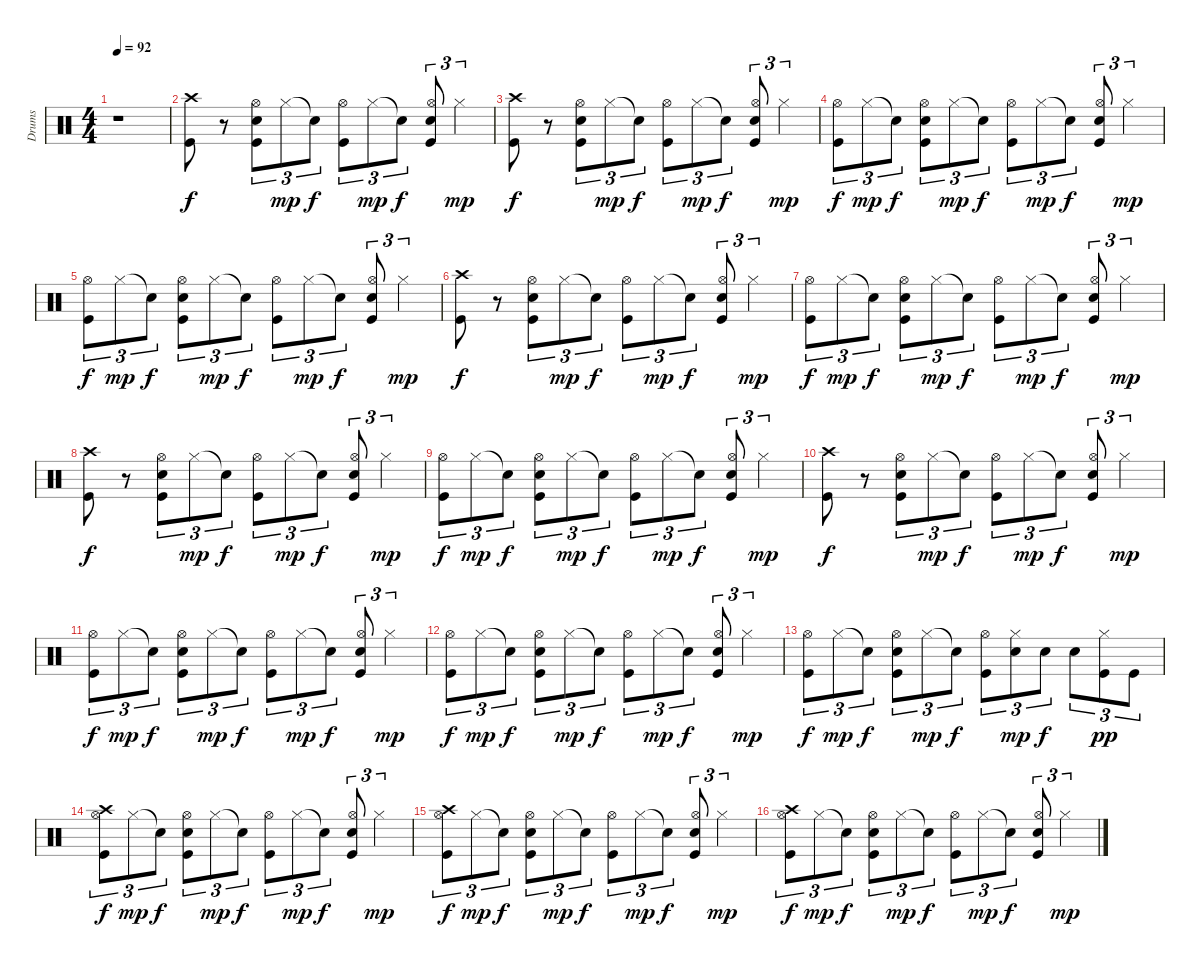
\track ("Drums" "Drums") {instrument percussion}
\staff {score}
\articulation defaults
\ts (4 4)
\tempo 92
\clef neutral
\ks c
r.1{dy f} |
("Crash high (hit)" "Kick (hit)").8 r.8 ("Kick (hit)" "Hi-Hat (open)" "Snare (hit) 2").8{tu (3 2)} "Hi-Hat (closed)".8{tu (3 2) dy mp} "Snare (hit)"{t}.8{tu (3 2) dy f} ("Hi-Hat (open)" "Kick (hit)").8{tu (3 2)} "Hi-Hat (closed)".8{tu (3 2) dy mp} "Snare (hit)"{t}.8{tu (3 2) dy f} ("Kick (hit)" "Hi-Hat (open)" "Snare (hit) 2").8{tu (3 2)} "Hi-Hat (closed)".4{tu (3 2) dy mp} |
("Crash high (hit)" "Kick (hit)").8{dy f} r.8 ("Kick (hit)" "Hi-Hat (open)" "Snare (hit) 2").8{tu (3 2)} "Hi-Hat (closed)".8{tu (3 2) dy mp} "Snare (hit)"{t}.8{tu (3 2) dy f} ("Hi-Hat (open)" "Kick (hit)").8{tu (3 2)} "Hi-Hat (closed)".8{tu (3 2) dy mp} "Snare (hit)"{t}.8{tu (3 2) dy f} ("Kick (hit)" "Hi-Hat (open)" "Snare (hit) 2").8{tu (3 2)} "Hi-Hat (closed)".4{tu (3 2) dy mp} |
("Hi-Hat (open)" "Kick (hit)").8{tu (3 2) dy f} "Hi-Hat (closed)".8{tu (3 2) dy mp} "Snare (hit)"{t}.8{tu (3 2) dy f} ("Hi-Hat (open)" "Snare (hit) 2" "Kick (hit)").8{tu (3 2)} "Hi-Hat (closed)".8{tu (3 2) dy mp} "Snare (hit)"{t}.8{tu (3 2) dy f} ("Hi-Hat (open)" "Kick (hit)").8{tu (3 2)} "Hi-Hat (closed)".8{tu (3 2) dy mp} "Snare (hit)"{t}.8{tu (3 2) dy f} ("Kick (hit)" "Hi-Hat (open)" "Snare (hit) 2").8{tu (3 2)} "Hi-Hat (closed)".4{tu (3 2) dy mp} |
("Hi-Hat (open)" "Kick (hit)").8{tu (3 2) dy f} "Hi-Hat (closed)".8{tu (3 2) dy mp} "Snare (hit)"{t}.8{tu (3 2) dy f} ("Hi-Hat (open)" "Kick (hit)" "Snare (hit) 2").8{tu (3 2)} "Hi-Hat (closed)".8{tu (3 2) dy mp} "Snare (hit)"{t}.8{tu (3 2) dy f} ("Kick (hit)" "Hi-Hat (open)").8{tu (3 2)} "Hi-Hat (closed)".8{tu (3 2) dy mp} "Snare (hit)"{t}.8{tu (3 2) dy f} ("Kick (hit)" "Snare (hit) 2" "Hi-Hat (open)").8{tu (3 2)} "Hi-Hat (closed)".4{tu (3 2) dy mp} |
("Crash high (hit)" "Kick (hit)").8{dy f} r.8 ("Kick (hit)" "Hi-Hat (open)" "Snare (hit) 2").8{tu (3 2)} "Hi-Hat (closed)".8{tu (3 2) dy mp} "Snare (hit)"{t}.8{tu (3 2) dy f} ("Hi-Hat (open)" "Kick (hit)").8{tu (3 2)} "Hi-Hat (closed)".8{tu (3 2) dy mp} "Snare (hit)"{t}.8{tu (3 2) dy f} ("Kick (hit)" "Hi-Hat (open)" "Snare (hit) 2").8{tu (3 2)} "Hi-Hat (closed)".4{tu (3 2) dy mp} |
("Hi-Hat (open)" "Kick (hit)").8{tu (3 2) dy f} "Hi-Hat (closed)".8{tu (3 2) dy mp} "Snare (hit)"{t}.8{tu (3 2) dy f} ("Hi-Hat (open)" "Kick (hit)" "Snare (hit) 2").8{tu (3 2)} "Hi-Hat (closed)".8{tu (3 2) dy mp} "Snare (hit)"{t}.8{tu (3 2) dy f} ("Kick (hit)" "Hi-Hat (open)").8{tu (3 2)} "Hi-Hat (closed)".8{tu (3 2) dy mp} "Snare (hit)"{t}.8{tu (3 2) dy f} ("Kick (hit)" "Snare (hit) 2" "Hi-Hat (open)").8{tu (3 2)} "Hi-Hat (closed)".4{tu (3 2) dy mp} |
("Crash high (hit)" "Kick (hit)").8{dy f} r.8 ("Kick (hit)" "Hi-Hat (open)" "Snare (hit) 2").8{tu (3 2)} "Hi-Hat (closed)".8{tu (3 2) dy mp} "Snare (hit)"{t}.8{tu (3 2) dy f} ("Hi-Hat (open)" "Kick (hit)").8{tu (3 2)} "Hi-Hat (closed)".8{tu (3 2) dy mp} "Snare (hit)"{t}.8{tu (3 2) dy f} ("Kick (hit)" "Hi-Hat (open)" "Snare (hit) 2").8{tu (3 2)} "Hi-Hat (closed)".4{tu (3 2) dy mp} |
("Hi-Hat (open)" "Kick (hit)").8{tu (3 2) dy f} "Hi-Hat (closed)".8{tu (3 2) dy mp} "Snare (hit)"{t}.8{tu (3 2) dy f} ("Hi-Hat (open)" "Kick (hit)" "Snare (hit) 2").8{tu (3 2)} "Hi-Hat (closed)".8{tu (3 2) dy mp} "Snare (hit)"{t}.8{tu (3 2) dy f} ("Kick (hit)" "Hi-Hat (open)").8{tu (3 2)} "Hi-Hat (closed)".8{tu (3 2) dy mp} "Snare (hit)"{t}.8{tu (3 2) dy f} ("Kick (hit)" "Snare (hit) 2" "Hi-Hat (open)").8{tu (3 2)} "Hi-Hat (closed)".4{tu (3 2) dy mp} |
("Crash high (hit)" "Kick (hit)").8{dy f} r.8 ("Kick (hit)" "Hi-Hat (open)" "Snare (hit) 2").8{tu (3 2)} "Hi-Hat (closed)".8{tu (3 2) dy mp} "Snare (hit)"{t}.8{tu (3 2) dy f} ("Hi-Hat (open)" "Kick (hit)").8{tu (3 2)} "Hi-Hat (closed)".8{tu (3 2) dy mp} "Snare (hit)"{t}.8{tu (3 2) dy f} ("Kick (hit)" "Hi-Hat (open)" "Snare (hit) 2").8{tu (3 2)} "Hi-Hat (closed)".4{tu (3 2) dy mp} |
("Hi-Hat (open)" "Kick (hit)").8{tu (3 2) dy f} "Hi-Hat (closed)".8{tu (3 2) dy mp} "Snare (hit)"{t}.8{tu (3 2) dy f} ("Hi-Hat (open)" "Kick (hit)" "Snare (hit) 2").8{tu (3 2)} "Hi-Hat (closed)".8{tu (3 2) dy mp} "Snare (hit)"{t}.8{tu (3 2) dy f} ("Kick (hit)" "Hi-Hat (open)").8{tu (3 2)} "Hi-Hat (closed)".8{tu (3 2) dy mp} "Snare (hit)"{t}.8{tu (3 2) dy f} ("Kick (hit)" "Snare (hit) 2" "Hi-Hat (open)").8{tu (3 2)} "Hi-Hat (closed)".4{tu (3 2) dy mp} |
("Kick (hit)" "Hi-Hat (open)").8{tu (3 2) dy f} "Hi-Hat (closed)".8{tu (3 2) dy mp} "Snare (hit)"{t}.8{tu (3 2) dy f} ("Kick (hit)" "Hi-Hat (open)" "Snare (hit) 2").8{tu (3 2)} "Hi-Hat (closed)".8{tu (3 2) dy mp} "Snare (hit)"{t}.8{tu (3 2) dy f} ("Hi-Hat (open)" "Kick (hit)").8{tu (3 2)} "Hi-Hat (closed)".8{tu (3 2) dy mp} "Snare (hit)"{t}.8{tu (3 2) dy f} ("Kick (hit)" "Snare (hit) 2" "Hi-Hat (open)").8{tu (3 2)} "Hi-Hat (closed)".4{tu (3 2) dy mp} |
("Hi-Hat (open)" "Kick (hit)").8{tu (3 2) dy f} "Hi-Hat (closed)".8{tu (3 2) dy mp} "Snare (hit)"{t}.8{tu (3 2) dy f} ("Kick (hit)" "Snare (hit) 2" "Hi-Hat (open)").8{tu (3 2)} "Hi-Hat (closed)".8{tu (3 2) dy mp} "Snare (hit)"{t}.8{tu (3 2) dy f} ("Hi-Hat (open)" "Kick (hit)").8{tu (3 2)} ("Hi-Hat (closed)" "Snare (hit) 2").8{tu (3 2) dy mp} "Snare (hit) 2".8{tu (3 2) dy f} "Snare (hit) 2".8{tu (3 2)} ("Hi-Hat (closed)" "Kick (hit)").8{tu (3 2) dy pp} "Kick (hit)".8{tu (3 2)} |
("Crash high (hit)" "Kick (hit)" "Hi-Hat (open)").8{tu (3 2) dy f} "Hi-Hat (closed)".8{tu (3 2) dy mp} "Snare (hit)"{t}.8{tu (3 2) dy f} ("Snare (hit) 2" "Kick (hit)" "Hi-Hat (open)").8{tu (3 2)} "Hi-Hat (closed)".8{tu (3 2) dy mp} "Snare (hit)"{t}.8{tu (3 2) dy f} ("Kick (hit)" "Hi-Hat (open)").8{tu (3 2)} "Hi-Hat (closed)".8{tu (3 2) dy mp} "Snare (hit)"{t}.8{tu (3 2) dy f} ("Snare (hit) 2" "Kick (hit)" "Hi-Hat (open)").8{tu (3 2)} "Hi-Hat (closed)".4{tu (3 2) dy mp} |
("Hi-Hat (open)" "Crash high (hit)" "Kick (hit)").8{tu (3 2) dy f} "Hi-Hat (closed)".8{tu (3 2) dy mp} "Snare (hit)"{t}.8{tu (3 2) dy f} ("Hi-Hat (open)" "Snare (hit) 2" "Kick (hit)").8{tu (3 2)} "Hi-Hat (closed)".8{tu (3 2) dy mp} "Snare (hit)"{t}.8{tu (3 2) dy f} ("Hi-Hat (open)" "Kick (hit)").8{tu (3 2)} "Hi-Hat (closed)".8{tu (3 2) dy mp} "Snare (hit)"{t}.8{tu (3 2) dy f} ("Hi-Hat (open)" "Snare (hit) 2" "Kick (hit)").8{tu (3 2)} "Hi-Hat (closed)".4{tu (3 2) dy mp} |
("Crash high (hit)" "Kick (hit)" "Hi-Hat (open)").8{tu (3 2) dy f} "Hi-Hat (closed)".8{tu (3 2) dy mp} "Snare (hit)"{t}.8{tu (3 2) dy f} ("Snare (hit) 2" "Kick (hit)" "Hi-Hat (open)").8{tu (3 2)} "Hi-Hat (closed)".8{tu (3 2) dy mp} "Snare (hit)"{t}.8{tu (3 2) dy f} ("Kick (hit)" "Hi-Hat (open)").8{tu (3 2)} "Hi-Hat (closed)".8{tu (3 2) dy mp} "Snare (hit)"{t}.8{tu (3 2) dy f} ("Snare (hit) 2" "Kick (hit)" "Hi-Hat (open)").8{tu (3 2)} "Hi-Hat (closed)".4{tu (3 2) dy mp}
